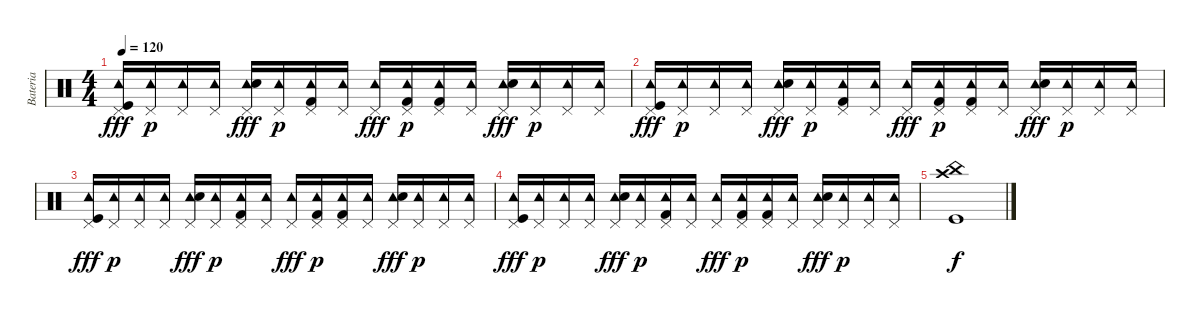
\track ("Bateria" "Bateria") {instrument percussion}
\staff {score}
\articulation defaults
\ts (4 4)
\tempo 120
\clef neutral
\ks c
("Tambourine (hit)" "Pedal Hi-Hat (hit)" "Kick (hit)").16{dy fff} ("Tambourine (hit)" "Pedal Hi-Hat (hit)").16{dy p} ("Tambourine (hit)" "Pedal Hi-Hat (hit)").16 ("Tambourine (hit)" "Pedal Hi-Hat (hit)").16 ("Tambourine (hit)" "Pedal Hi-Hat (hit)" "Electric Snare (hit)").16{dy fff} ("Tambourine (hit)" "Pedal Hi-Hat (hit)").16{dy p} ("Tambourine (hit)" "Pedal Hi-Hat (hit)" "Kick (hit) 2").16 ("Tambourine (hit)" "Pedal Hi-Hat (hit)").16 ("Tambourine (hit)" "Pedal Hi-Hat (hit)").16{dy fff} ("Tambourine (hit)" "Pedal Hi-Hat (hit)" "Kick (hit) 2").16{dy p} ("Tambourine (hit)" "Pedal Hi-Hat (hit)" "Kick (hit) 2").16 ("Tambourine (hit)" "Pedal Hi-Hat (hit)").16 ("Tambourine (hit)" "Pedal Hi-Hat (hit)" "Electric Snare (hit)").16{dy fff} ("Tambourine (hit)" "Pedal Hi-Hat (hit)").16{dy p} ("Tambourine (hit)" "Pedal Hi-Hat (hit)").16 ("Tambourine (hit)" "Pedal Hi-Hat (hit)").16 |
("Tambourine (hit)" "Pedal Hi-Hat (hit)" "Kick (hit)").16{dy fff} ("Tambourine (hit)" "Pedal Hi-Hat (hit)").16{dy p} ("Tambourine (hit)" "Pedal Hi-Hat (hit)").16 ("Tambourine (hit)" "Pedal Hi-Hat (hit)").16 ("Tambourine (hit)" "Pedal Hi-Hat (hit)" "Electric Snare (hit)").16{dy fff} ("Tambourine (hit)" "Pedal Hi-Hat (hit)").16{dy p} ("Tambourine (hit)" "Pedal Hi-Hat (hit)" "Kick (hit) 2").16 ("Tambourine (hit)" "Pedal Hi-Hat (hit)").16 ("Tambourine (hit)" "Pedal Hi-Hat (hit)").16{dy fff} ("Tambourine (hit)" "Pedal Hi-Hat (hit)" "Kick (hit) 2").16{dy p} ("Tambourine (hit)" "Pedal Hi-Hat (hit)" "Kick (hit) 2").16 ("Tambourine (hit)" "Pedal Hi-Hat (hit)").16 ("Tambourine (hit)" "Pedal Hi-Hat (hit)" "Electric Snare (hit)").16{dy fff} ("Tambourine (hit)" "Pedal Hi-Hat (hit)").16{dy p} ("Tambourine (hit)" "Pedal Hi-Hat (hit)").16 ("Tambourine (hit)" "Pedal Hi-Hat (hit)").16 |
("Tambourine (hit)" "Pedal Hi-Hat (hit)" "Kick (hit)").16{dy fff} ("Tambourine (hit)" "Pedal Hi-Hat (hit)").16{dy p} ("Tambourine (hit)" "Pedal Hi-Hat (hit)").16 ("Tambourine (hit)" "Pedal Hi-Hat (hit)").16 ("Tambourine (hit)" "Pedal Hi-Hat (hit)" "Electric Snare (hit)").16{dy fff} ("Tambourine (hit)" "Pedal Hi-Hat (hit)").16{dy p} ("Tambourine (hit)" "Pedal Hi-Hat (hit)" "Kick (hit) 2").16 ("Tambourine (hit)" "Pedal Hi-Hat (hit)").16 ("Tambourine (hit)" "Pedal Hi-Hat (hit)").16{dy fff} ("Tambourine (hit)" "Pedal Hi-Hat (hit)" "Kick (hit) 2").16{dy p} ("Tambourine (hit)" "Pedal Hi-Hat (hit)" "Kick (hit) 2").16 ("Tambourine (hit)" "Pedal Hi-Hat (hit)").16 ("Tambourine (hit)" "Pedal Hi-Hat (hit)" "Electric Snare (hit)").16{dy fff} ("Tambourine (hit)" "Pedal Hi-Hat (hit)").16{dy p} ("Tambourine (hit)" "Pedal Hi-Hat (hit)").16 ("Tambourine (hit)" "Pedal Hi-Hat (hit)").16 |
("Tambourine (hit)" "Pedal Hi-Hat (hit)" "Kick (hit)").16{dy fff} ("Tambourine (hit)" "Pedal Hi-Hat (hit)").16{dy p} ("Tambourine (hit)" "Pedal Hi-Hat (hit)").16 ("Tambourine (hit)" "Pedal Hi-Hat (hit)").16 ("Tambourine (hit)" "Pedal Hi-Hat (hit)" "Electric Snare (hit)").16{dy fff} ("Tambourine (hit)" "Pedal Hi-Hat (hit)").16{dy p} ("Tambourine (hit)" "Pedal Hi-Hat (hit)" "Kick (hit) 2").16 ("Tambourine (hit)" "Pedal Hi-Hat (hit)").16 ("Tambourine (hit)" "Pedal Hi-Hat (hit)").16{dy fff} ("Tambourine (hit)" "Pedal Hi-Hat (hit)" "Kick (hit) 2").16{dy p} ("Tambourine (hit)" "Pedal Hi-Hat (hit)" "Kick (hit) 2").16 ("Tambourine (hit)" "Pedal Hi-Hat (hit)").16 ("Tambourine (hit)" "Pedal Hi-Hat (hit)" "Electric Snare (hit)").16{dy fff} ("Tambourine (hit)" "Pedal Hi-Hat (hit)").16{dy p} ("Tambourine (hit)" "Pedal Hi-Hat (hit)").16 ("Tambourine (hit)" "Pedal Hi-Hat (hit)").16 |
("China (hit)" "Crash high (hit)" "Kick (hit)").1{dy f}
